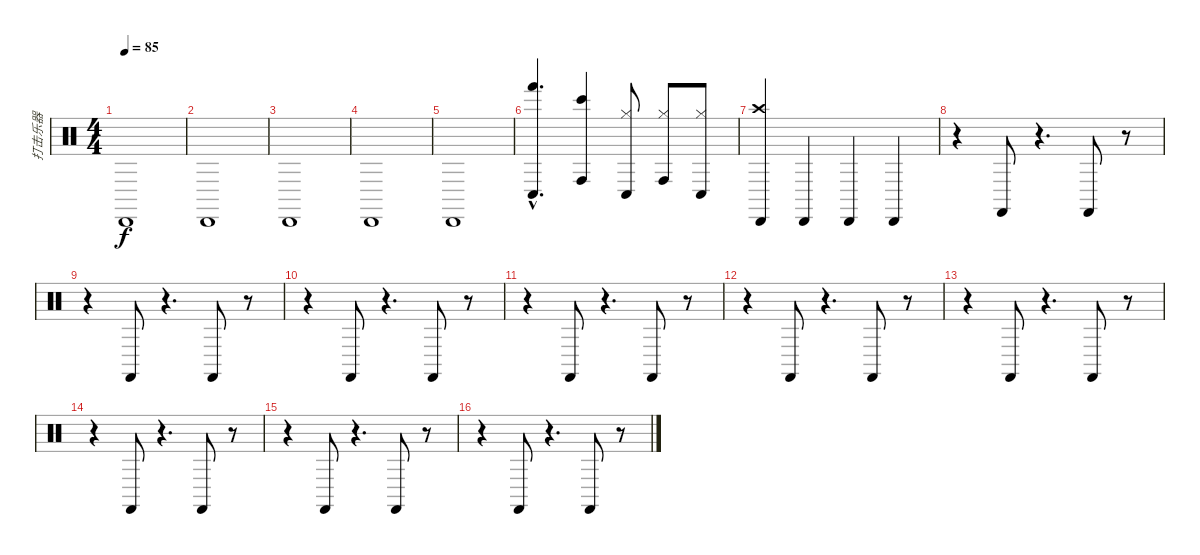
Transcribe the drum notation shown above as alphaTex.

\track ("打击乐器" "打击乐器") {instrument percussion}
\staff {score}
\articulation defaults
\ts (4 4)
\tempo 85
\clef neutral
\ks c "Cabasa (hit)".1{dy f}
|
"Cabasa (hit)".1 |
"Cabasa (hit)".1 |
"Cabasa (hit)".1 |
"Cabasa (hit)".1 |
("Conga low (hit)"{hac} "Hand (hit)"{hac}).4{d} ("Conga high (hit)" "Bongo High (hit)").4 ("Hi-Hat (closed)" "Conga low (hit)").8 ("Hi-Hat (closed)" "Conga high (hit)").8 ("Hi-Hat (closed)" "Conga low (hit)").8 |
("Crash high (hit)" "Cabasa (hit)").4 "Cabasa (hit)".4 "Cabasa (hit)".4 "Cabasa (hit)".4 |
r.4 "Castanets (hit)".8 r.4{d} "Castanets (hit)".8 r.8 |
r.4 "Castanets (hit)".8 r.4{d} "Castanets (hit)".8 r.8 |
r.4 "Castanets (hit)".8 r.4{d} "Castanets (hit)".8 r.8 |
r.4 "Castanets (hit)".8 r.4{d} "Castanets (hit)".8 r.8 |
r.4 "Castanets (hit)".8 r.4{d} "Castanets (hit)".8 r.8 |
r.4 "Castanets (hit)".8 r.4{d} "Castanets (hit)".8 r.8 |
r.4 "Castanets (hit)".8 r.4{d} "Castanets (hit)".8 r.8 |
r.4 "Castanets (hit)".8 r.4{d} "Castanets (hit)".8 r.8 |
r.4 "Castanets (hit)".8 r.4{d} "Castanets (hit)".8 r.8
